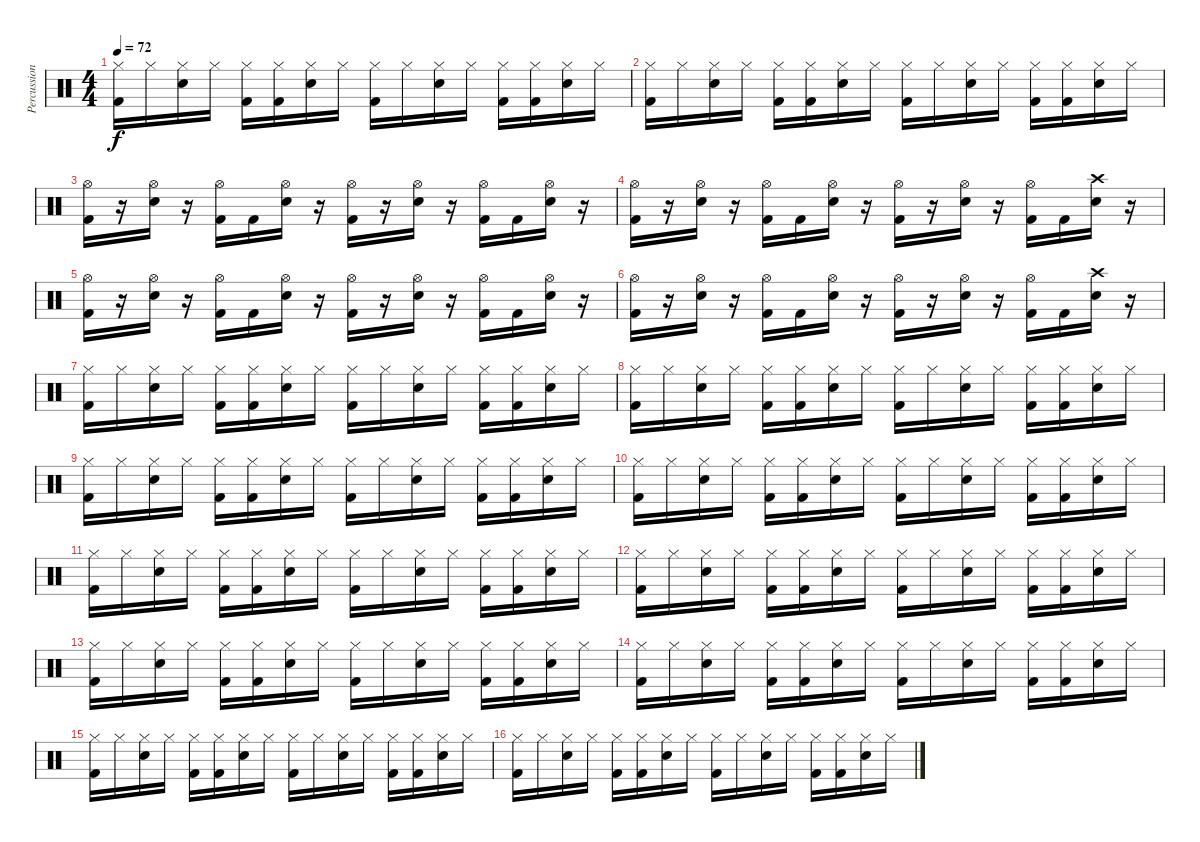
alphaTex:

\track ("Percussion" "Percussion") {instrument percussion}
\staff {score}
\articulation defaults
\ts (4 4)
\tempo 72
\clef neutral
\ks c
("Hi-Hat (closed)" "Kick (hit) 2").16{dy f} "Hi-Hat (closed)".16 ("Hi-Hat (closed)" "Snare (hit) 2").16 "Hi-Hat (closed)".16 ("Hi-Hat (closed)" "Kick (hit) 2").16 ("Hi-Hat (closed)" "Kick (hit) 2").16 ("Hi-Hat (closed)" "Snare (hit) 2").16 "Hi-Hat (closed)".16 ("Hi-Hat (closed)" "Kick (hit) 2").16 "Hi-Hat (closed)".16 ("Hi-Hat (closed)" "Snare (hit) 2").16 "Hi-Hat (closed)".16 ("Hi-Hat (closed)" "Kick (hit) 2").16 ("Hi-Hat (closed)" "Kick (hit) 2").16 ("Hi-Hat (closed)" "Snare (hit) 2").16 "Hi-Hat (closed)".16 |
("Hi-Hat (closed)" "Kick (hit) 2").16 "Hi-Hat (closed)".16 ("Hi-Hat (closed)" "Snare (hit) 2").16 "Hi-Hat (closed)".16 ("Hi-Hat (closed)" "Kick (hit) 2").16 ("Hi-Hat (closed)" "Kick (hit) 2").16 ("Hi-Hat (closed)" "Snare (hit) 2").16 "Hi-Hat (closed)".16 ("Hi-Hat (closed)" "Kick (hit) 2").16 "Hi-Hat (closed)".16 ("Hi-Hat (closed)" "Snare (hit) 2").16 "Hi-Hat (closed)".16 ("Hi-Hat (closed)" "Kick (hit) 2").16 ("Hi-Hat (closed)" "Kick (hit) 2").16 ("Hi-Hat (closed)" "Snare (hit) 2").16 "Hi-Hat (closed)".16 |
("Hi-Hat (open)" "Kick (hit) 2").16 r.16 ("Hi-Hat (open)" "Snare (hit) 2").16 r.16 ("Hi-Hat (open)" "Kick (hit) 2").16 "Kick (hit) 2".16 ("Hi-Hat (open)" "Snare (hit) 2").16 r.16 ("Hi-Hat (open)" "Kick (hit) 2").16 r.16 ("Hi-Hat (open)" "Snare (hit) 2").16 r.16 ("Hi-Hat (open)" "Kick (hit) 2").16 "Kick (hit) 2".16 ("Hi-Hat (open)" "Snare (hit) 2").16 r.16 |
("Hi-Hat (open)" "Kick (hit) 2").16 r.16 ("Hi-Hat (open)" "Snare (hit) 2").16 r.16 ("Hi-Hat (open)" "Kick (hit) 2").16 "Kick (hit) 2".16 ("Hi-Hat (open)" "Snare (hit) 2").16 r.16 ("Hi-Hat (open)" "Kick (hit) 2").16 r.16 ("Hi-Hat (open)" "Snare (hit) 2").16 r.16 ("Hi-Hat (open)" "Kick (hit) 2").16 "Kick (hit) 2".16 ("Crash high (hit)" "Snare (hit) 2").16 r.16 |
("Hi-Hat (open)" "Kick (hit) 2").16 r.16 ("Hi-Hat (open)" "Snare (hit) 2").16 r.16 ("Hi-Hat (open)" "Kick (hit) 2").16 "Kick (hit) 2".16 ("Hi-Hat (open)" "Snare (hit) 2").16 r.16 ("Hi-Hat (open)" "Kick (hit) 2").16 r.16 ("Hi-Hat (open)" "Snare (hit) 2").16 r.16 ("Hi-Hat (open)" "Kick (hit) 2").16 "Kick (hit) 2".16 ("Hi-Hat (open)" "Snare (hit) 2").16 r.16 |
("Hi-Hat (open)" "Kick (hit) 2").16 r.16 ("Hi-Hat (open)" "Snare (hit) 2").16 r.16 ("Hi-Hat (open)" "Kick (hit) 2").16 "Kick (hit) 2".16 ("Hi-Hat (open)" "Snare (hit) 2").16 r.16 ("Hi-Hat (open)" "Kick (hit) 2").16 r.16 ("Hi-Hat (open)" "Snare (hit) 2").16 r.16 ("Hi-Hat (open)" "Kick (hit) 2").16 "Kick (hit) 2".16 ("Crash high (hit)" "Snare (hit) 2").16 r.16 |
("Hi-Hat (closed)" "Kick (hit) 2").16 "Hi-Hat (closed)".16 ("Hi-Hat (closed)" "Snare (hit) 2").16 "Hi-Hat (closed)".16 ("Hi-Hat (closed)" "Kick (hit) 2").16 ("Hi-Hat (closed)" "Kick (hit) 2").16 ("Hi-Hat (closed)" "Snare (hit) 2").16 "Hi-Hat (closed)".16 ("Hi-Hat (closed)" "Kick (hit) 2").16 "Hi-Hat (closed)".16 ("Hi-Hat (closed)" "Snare (hit) 2").16 "Hi-Hat (closed)".16 ("Hi-Hat (closed)" "Kick (hit) 2").16 ("Hi-Hat (closed)" "Kick (hit) 2").16 ("Hi-Hat (closed)" "Snare (hit) 2").16 "Hi-Hat (closed)".16 |
("Hi-Hat (closed)" "Kick (hit) 2").16 "Hi-Hat (closed)".16 ("Hi-Hat (closed)" "Snare (hit) 2").16 "Hi-Hat (closed)".16 ("Hi-Hat (closed)" "Kick (hit) 2").16 ("Hi-Hat (closed)" "Kick (hit) 2").16 ("Hi-Hat (closed)" "Snare (hit) 2").16 "Hi-Hat (closed)".16 ("Hi-Hat (closed)" "Kick (hit) 2").16 "Hi-Hat (closed)".16 ("Hi-Hat (closed)" "Snare (hit) 2").16 "Hi-Hat (closed)".16 ("Hi-Hat (closed)" "Kick (hit) 2").16 ("Hi-Hat (closed)" "Kick (hit) 2").16 ("Hi-Hat (closed)" "Snare (hit) 2").16 "Hi-Hat (closed)".16 |
("Hi-Hat (closed)" "Kick (hit) 2").16 "Hi-Hat (closed)".16 ("Hi-Hat (closed)" "Snare (hit) 2").16 "Hi-Hat (closed)".16 ("Hi-Hat (closed)" "Kick (hit) 2").16 ("Hi-Hat (closed)" "Kick (hit) 2").16 ("Hi-Hat (closed)" "Snare (hit) 2").16 "Hi-Hat (closed)".16 ("Hi-Hat (closed)" "Kick (hit) 2").16 "Hi-Hat (closed)".16 ("Hi-Hat (closed)" "Snare (hit) 2").16 "Hi-Hat (closed)".16 ("Hi-Hat (closed)" "Kick (hit) 2").16 ("Hi-Hat (closed)" "Kick (hit) 2").16 ("Hi-Hat (closed)" "Snare (hit) 2").16 "Hi-Hat (closed)".16 |
("Hi-Hat (closed)" "Kick (hit) 2").16 "Hi-Hat (closed)".16 ("Hi-Hat (closed)" "Snare (hit) 2").16 "Hi-Hat (closed)".16 ("Hi-Hat (closed)" "Kick (hit) 2").16 ("Hi-Hat (closed)" "Kick (hit) 2").16 ("Hi-Hat (closed)" "Snare (hit) 2").16 "Hi-Hat (closed)".16 ("Hi-Hat (closed)" "Kick (hit) 2").16 "Hi-Hat (closed)".16 ("Hi-Hat (closed)" "Snare (hit) 2").16 "Hi-Hat (closed)".16 ("Hi-Hat (closed)" "Kick (hit) 2").16 ("Hi-Hat (closed)" "Kick (hit) 2").16 ("Hi-Hat (closed)" "Snare (hit) 2").16 "Hi-Hat (closed)".16 |
("Hi-Hat (closed)" "Kick (hit) 2").16 "Hi-Hat (closed)".16 ("Hi-Hat (closed)" "Snare (hit) 2").16 "Hi-Hat (closed)".16 ("Hi-Hat (closed)" "Kick (hit) 2").16 ("Hi-Hat (closed)" "Kick (hit) 2").16 ("Hi-Hat (closed)" "Snare (hit) 2").16 "Hi-Hat (closed)".16 ("Hi-Hat (closed)" "Kick (hit) 2").16 "Hi-Hat (closed)".16 ("Hi-Hat (closed)" "Snare (hit) 2").16 "Hi-Hat (closed)".16 ("Hi-Hat (closed)" "Kick (hit) 2").16 ("Hi-Hat (closed)" "Kick (hit) 2").16 ("Hi-Hat (closed)" "Snare (hit) 2").16 "Hi-Hat (closed)".16 |
("Hi-Hat (closed)" "Kick (hit) 2").16 "Hi-Hat (closed)".16 ("Hi-Hat (closed)" "Snare (hit) 2").16 "Hi-Hat (closed)".16 ("Hi-Hat (closed)" "Kick (hit) 2").16 ("Hi-Hat (closed)" "Kick (hit) 2").16 ("Hi-Hat (closed)" "Snare (hit) 2").16 "Hi-Hat (closed)".16 ("Hi-Hat (closed)" "Kick (hit) 2").16 "Hi-Hat (closed)".16 ("Hi-Hat (closed)" "Snare (hit) 2").16 "Hi-Hat (closed)".16 ("Hi-Hat (closed)" "Kick (hit) 2").16 ("Hi-Hat (closed)" "Kick (hit) 2").16 ("Hi-Hat (closed)" "Snare (hit) 2").16 "Hi-Hat (closed)".16 |
("Hi-Hat (closed)" "Kick (hit) 2").16 "Hi-Hat (closed)".16 ("Hi-Hat (closed)" "Snare (hit) 2").16 "Hi-Hat (closed)".16 ("Hi-Hat (closed)" "Kick (hit) 2").16 ("Hi-Hat (closed)" "Kick (hit) 2").16 ("Hi-Hat (closed)" "Snare (hit) 2").16 "Hi-Hat (closed)".16 ("Hi-Hat (closed)" "Kick (hit) 2").16 "Hi-Hat (closed)".16 ("Hi-Hat (closed)" "Snare (hit) 2").16 "Hi-Hat (closed)".16 ("Hi-Hat (closed)" "Kick (hit) 2").16 ("Hi-Hat (closed)" "Kick (hit) 2").16 ("Hi-Hat (closed)" "Snare (hit) 2").16 "Hi-Hat (closed)".16 |
("Hi-Hat (closed)" "Kick (hit) 2").16 "Hi-Hat (closed)".16 ("Hi-Hat (closed)" "Snare (hit) 2").16 "Hi-Hat (closed)".16 ("Hi-Hat (closed)" "Kick (hit) 2").16 ("Hi-Hat (closed)" "Kick (hit) 2").16 ("Hi-Hat (closed)" "Snare (hit) 2").16 "Hi-Hat (closed)".16 ("Hi-Hat (closed)" "Kick (hit) 2").16 "Hi-Hat (closed)".16 ("Hi-Hat (closed)" "Snare (hit) 2").16 "Hi-Hat (closed)".16 ("Hi-Hat (closed)" "Kick (hit) 2").16 ("Hi-Hat (closed)" "Kick (hit) 2").16 ("Hi-Hat (closed)" "Snare (hit) 2").16 "Hi-Hat (closed)".16 |
("Hi-Hat (closed)" "Kick (hit) 2").16 "Hi-Hat (closed)".16 ("Hi-Hat (closed)" "Snare (hit) 2").16 "Hi-Hat (closed)".16 ("Hi-Hat (closed)" "Kick (hit) 2").16 ("Hi-Hat (closed)" "Kick (hit) 2").16 ("Hi-Hat (closed)" "Snare (hit) 2").16 "Hi-Hat (closed)".16 ("Hi-Hat (closed)" "Kick (hit) 2").16 "Hi-Hat (closed)".16 ("Hi-Hat (closed)" "Snare (hit) 2").16 "Hi-Hat (closed)".16 ("Hi-Hat (closed)" "Kick (hit) 2").16 ("Hi-Hat (closed)" "Kick (hit) 2").16 ("Hi-Hat (closed)" "Snare (hit) 2").16 "Hi-Hat (closed)".16 |
("Hi-Hat (closed)" "Kick (hit) 2").16 "Hi-Hat (closed)".16 ("Hi-Hat (closed)" "Snare (hit) 2").16 "Hi-Hat (closed)".16 ("Hi-Hat (closed)" "Kick (hit) 2").16 ("Hi-Hat (closed)" "Kick (hit) 2").16 ("Hi-Hat (closed)" "Snare (hit) 2").16 "Hi-Hat (closed)".16 ("Hi-Hat (closed)" "Kick (hit) 2").16 "Hi-Hat (closed)".16 ("Hi-Hat (closed)" "Snare (hit) 2").16 "Hi-Hat (closed)".16 ("Hi-Hat (closed)" "Kick (hit) 2").16 ("Hi-Hat (closed)" "Kick (hit) 2").16 ("Hi-Hat (closed)" "Snare (hit) 2").16 "Hi-Hat (closed)".16
